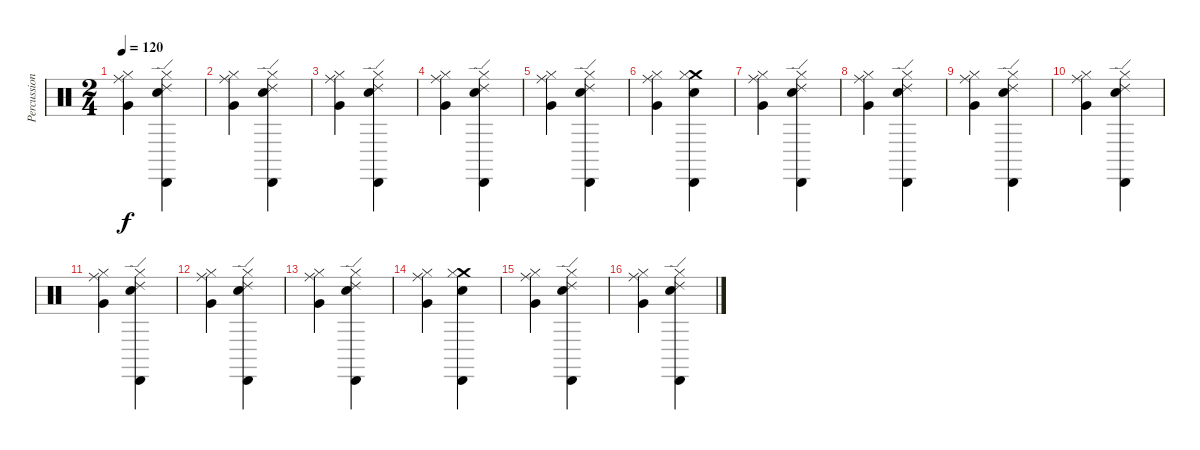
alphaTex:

\track ("Percussions" "Percussion") {instrument percussion}
\staff {score}
\articulation defaults
\ts (2 4)
\tempo 120
\clef neutral
\ks c
("Ride (middle)" "Hi-Hat (closed)" "Very Low Tom (hit)").4{dy f} ("Ride (edge) 2" "Cabasa (hit)" "Hi-Hat (closed)" "Electric Snare (hit)").4 |
("Ride (middle)" "Hi-Hat (closed)" "Very Low Tom (hit)").4 ("Ride (edge) 2" "Cabasa (hit)" "Hi-Hat (closed)" "Electric Snare (hit)").4 |
("Ride (middle)" "Hi-Hat (closed)" "Very Low Tom (hit)").4 ("Ride (edge) 2" "Cabasa (hit)" "Hi-Hat (closed)" "Electric Snare (hit)").4 |
("Ride (middle)" "Hi-Hat (closed)" "Very Low Tom (hit)").4 ("Ride (edge) 2" "Cabasa (hit)" "Hi-Hat (closed)" "Electric Snare (hit)").4 |
("Ride (middle)" "Hi-Hat (closed)" "Very Low Tom (hit)").4 ("Ride (edge) 2" "Cabasa (hit)" "Hi-Hat (closed)" "Electric Snare (hit)").4 |
("Ride (middle)" "Hi-Hat (closed)" "Very Low Tom (hit)").4 ("Crash medium (hit)" "Cabasa (hit)" "Hi-Hat (closed)" "Electric Snare (hit)").4 |
("Ride (middle)" "Hi-Hat (closed)" "Very Low Tom (hit)").4 ("Ride (edge) 2" "Cabasa (hit)" "Hi-Hat (closed)" "Electric Snare (hit)").4 |
("Ride (middle)" "Hi-Hat (closed)" "Very Low Tom (hit)").4 ("Ride (edge) 2" "Cabasa (hit)" "Hi-Hat (closed)" "Electric Snare (hit)").4 |
("Ride (middle)" "Hi-Hat (closed)" "Very Low Tom (hit)").4 ("Ride (edge) 2" "Cabasa (hit)" "Hi-Hat (closed)" "Electric Snare (hit)").4 |
("Ride (middle)" "Hi-Hat (closed)" "Very Low Tom (hit)").4 ("Ride (edge) 2" "Cabasa (hit)" "Hi-Hat (closed)" "Electric Snare (hit)").4 |
("Ride (middle)" "Hi-Hat (closed)" "Very Low Tom (hit)").4 ("Ride (edge) 2" "Cabasa (hit)" "Hi-Hat (closed)" "Electric Snare (hit)").4 |
("Ride (middle)" "Hi-Hat (closed)" "Very Low Tom (hit)").4 ("Ride (edge) 2" "Cabasa (hit)" "Hi-Hat (closed)" "Electric Snare (hit)").4 |
("Ride (middle)" "Hi-Hat (closed)" "Very Low Tom (hit)").4 ("Ride (edge) 2" "Cabasa (hit)" "Hi-Hat (closed)" "Electric Snare (hit)").4 |
("Ride (middle)" "Hi-Hat (closed)" "Very Low Tom (hit)").4 ("Crash medium (hit)" "Cabasa (hit)" "Hi-Hat (closed)" "Electric Snare (hit)").4 |
("Ride (middle)" "Hi-Hat (closed)" "Very Low Tom (hit)").4 ("Ride (edge) 2" "Cabasa (hit)" "Hi-Hat (closed)" "Electric Snare (hit)").4 |
("Ride (middle)" "Hi-Hat (closed)" "Very Low Tom (hit)").4 ("Ride (edge) 2" "Cabasa (hit)" "Hi-Hat (closed)" "Electric Snare (hit)").4
